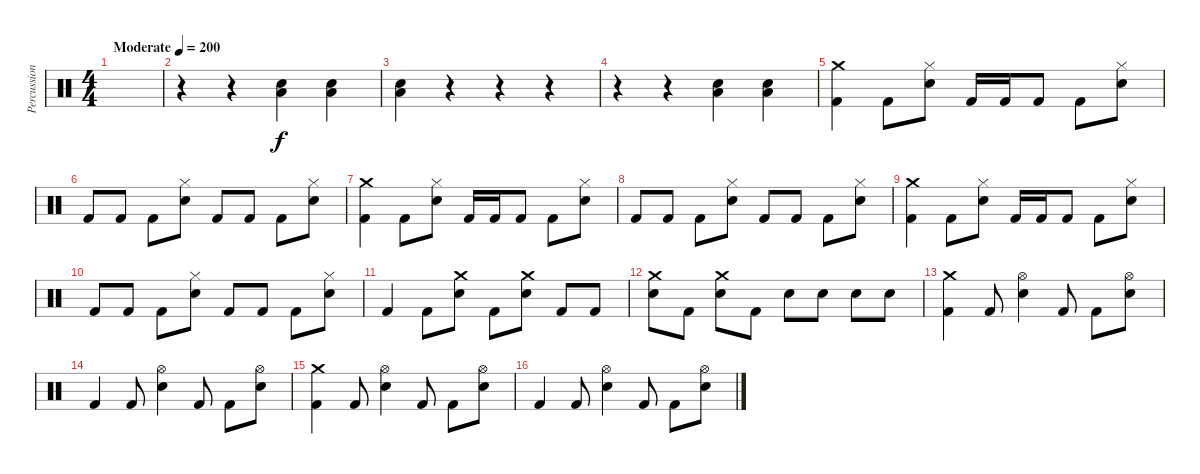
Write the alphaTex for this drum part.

\track ("Percussion" "Percussion") {instrument percussion}
\staff {score}
\articulation defaults
\ts (4 4)
\tempo (200 "Moderate")
\clef neutral
\ks c
|
r.4 r.4 ("Snare (hit) 2" "Low Floor Tom (hit)").4 ("Snare (hit) 2" "Low Floor Tom (hit)").4 |
("Snare (hit) 2" "Low Floor Tom (hit)").4 r.4 r.4 r.4 |
r.4 r.4 ("Snare (hit) 2" "Low Floor Tom (hit)").4 ("Snare (hit) 2" "Low Floor Tom (hit)").4 |
("Crash medium (hit)" "Kick (hit) 2").4 "Kick (hit) 2".8 ("Hi-Hat (closed)" "Snare (hit) 2").8 "Kick (hit) 2".16 "Kick (hit) 2".16 "Kick (hit) 2".8 "Kick (hit) 2".8 ("Hi-Hat (closed)" "Snare (hit) 2").8 |
"Kick (hit) 2".8 "Kick (hit) 2".8 "Kick (hit) 2".8 ("Hi-Hat (closed)" "Snare (hit) 2").8 "Kick (hit) 2".8 "Kick (hit) 2".8 "Kick (hit) 2".8 ("Hi-Hat (closed)" "Snare (hit) 2").8 |
("Crash medium (hit)" "Kick (hit) 2").4 "Kick (hit) 2".8 ("Hi-Hat (closed)" "Snare (hit) 2").8 "Kick (hit) 2".16 "Kick (hit) 2".16 "Kick (hit) 2".8 "Kick (hit) 2".8 ("Hi-Hat (closed)" "Snare (hit) 2").8 |
"Kick (hit) 2".8 "Kick (hit) 2".8 "Kick (hit) 2".8 ("Hi-Hat (closed)" "Snare (hit) 2").8 "Kick (hit) 2".8 "Kick (hit) 2".8 "Kick (hit) 2".8 ("Hi-Hat (closed)" "Snare (hit) 2").8 |
("Crash medium (hit)" "Kick (hit) 2").4 "Kick (hit) 2".8 ("Hi-Hat (closed)" "Snare (hit) 2").8 "Kick (hit) 2".16 "Kick (hit) 2".16 "Kick (hit) 2".8 "Kick (hit) 2".8 ("Hi-Hat (closed)" "Snare (hit) 2").8 |
"Kick (hit) 2".8 "Kick (hit) 2".8 "Kick (hit) 2".8 ("Hi-Hat (closed)" "Snare (hit) 2").8 "Kick (hit) 2".8 "Kick (hit) 2".8 "Kick (hit) 2".8 ("Hi-Hat (closed)" "Snare (hit) 2").8 |
"Kick (hit) 2".4 "Kick (hit) 2".8 ("Crash medium (hit)" "Snare (hit) 2").8 "Kick (hit) 2".8 ("Crash medium (hit)" "Snare (hit) 2").8 "Kick (hit) 2".8 "Kick (hit) 2".8 |
("Crash medium (hit)" "Snare (hit) 2").8 "Kick (hit) 2".8 ("Crash medium (hit)" "Snare (hit) 2").8 "Kick (hit) 2".8 "Snare (hit) 2".8 "Snare (hit) 2".8 "Snare (hit) 2".8 "Snare (hit) 2".8 |
("Crash medium (hit)" "Kick (hit) 2").4 "Kick (hit) 2".8 ("Hi-Hat (open)" "Snare (hit) 2").4 "Kick (hit) 2".8 "Kick (hit) 2".8 ("Hi-Hat (open)" "Snare (hit) 2").8 |
"Kick (hit) 2".4 "Kick (hit) 2".8 ("Hi-Hat (open)" "Snare (hit) 2").4 "Kick (hit) 2".8 "Kick (hit) 2".8 ("Hi-Hat (open)" "Snare (hit) 2").8 |
("Crash medium (hit)" "Kick (hit) 2").4 "Kick (hit) 2".8 ("Hi-Hat (open)" "Snare (hit) 2").4 "Kick (hit) 2".8 "Kick (hit) 2".8 ("Hi-Hat (open)" "Snare (hit) 2").8 |
"Kick (hit) 2".4 "Kick (hit) 2".8 ("Hi-Hat (open)" "Snare (hit) 2").4 "Kick (hit) 2".8 "Kick (hit) 2".8 ("Hi-Hat (open)" "Snare (hit) 2").8
